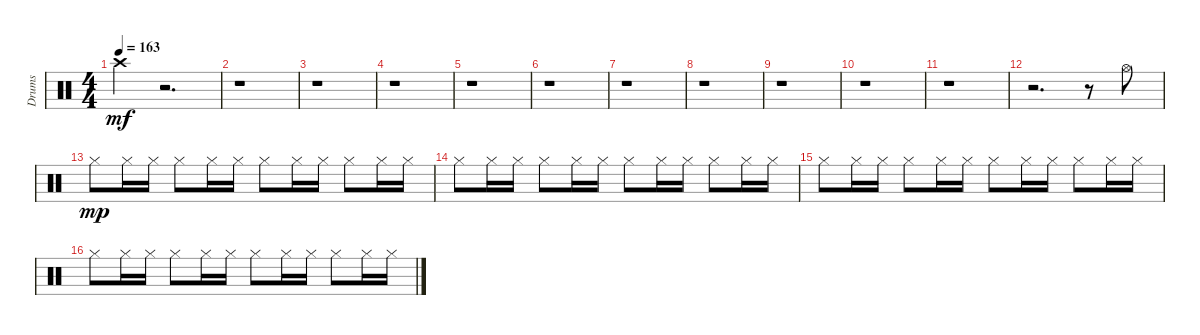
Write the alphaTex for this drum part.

\track ("Drums" "Drums") {instrument percussion}
\staff {score}
\articulation defaults
\ts (4 4)
\tempo 163
\clef neutral
\ks c "Crash high (hit)".4{dy mf}
r.2{d} |
r.1 |
r.1 |
r.1 |
r.1 |
r.1 |
r.1 |
r.1 |
r.1 |
r.1 |
r.1 |
r.2{d} r.8 "Hi-Hat (open)".8 |
"Hi-Hat (closed)".8{dy mp} "Hi-Hat (closed)".16 "Hi-Hat (closed)".16 "Hi-Hat (closed)".8 "Hi-Hat (closed)".16 "Hi-Hat (closed)".16 "Hi-Hat (closed)".8 "Hi-Hat (closed)".16 "Hi-Hat (closed)".16 "Hi-Hat (closed)".8 "Hi-Hat (closed)".16 "Hi-Hat (closed)".16 |
"Hi-Hat (closed)".8 "Hi-Hat (closed)".16 "Hi-Hat (closed)".16 "Hi-Hat (closed)".8 "Hi-Hat (closed)".16 "Hi-Hat (closed)".16 "Hi-Hat (closed)".8 "Hi-Hat (closed)".16 "Hi-Hat (closed)".16 "Hi-Hat (closed)".8 "Hi-Hat (closed)".16 "Hi-Hat (closed)".16 |
"Hi-Hat (closed)".8 "Hi-Hat (closed)".16 "Hi-Hat (closed)".16 "Hi-Hat (closed)".8 "Hi-Hat (closed)".16 "Hi-Hat (closed)".16 "Hi-Hat (closed)".8 "Hi-Hat (closed)".16 "Hi-Hat (closed)".16 "Hi-Hat (closed)".8 "Hi-Hat (closed)".16 "Hi-Hat (closed)".16 |
"Hi-Hat (closed)".8 "Hi-Hat (closed)".16 "Hi-Hat (closed)".16 "Hi-Hat (closed)".8 "Hi-Hat (closed)".16 "Hi-Hat (closed)".16 "Hi-Hat (closed)".8 "Hi-Hat (closed)".16 "Hi-Hat (closed)".16 "Hi-Hat (closed)".8 "Hi-Hat (closed)".16 "Hi-Hat (closed)".16
